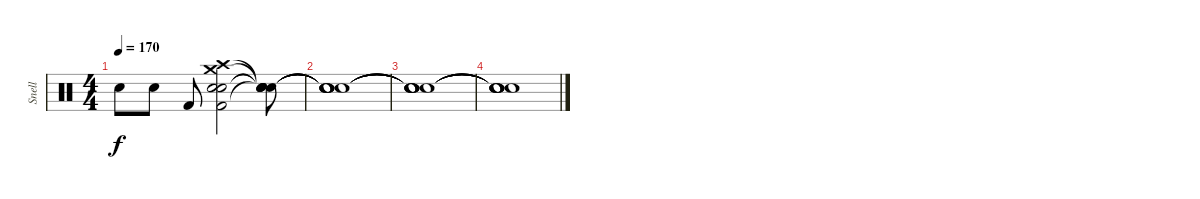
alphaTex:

\track ("Snell" "Snell") {instrument percussion}
\staff {score}
\articulation defaults
\ts (4 4)
\tempo 170
\clef neutral
\ks c "Electric Snare (hit)".8{dy f} "Electric Snare (hit)".8 "Kick (hit) 2".8
("Crash medium (hit)" "Crash high (hit)" "Snare (hit) 2" "Electric Snare (hit)" "Kick (hit) 2").2 ("Snare (hit)"{t} "Snare (hit)"{t} "Snare (hit)"{t} "Snare (hit)"{t} "Snare (hit)"{t}).8 |
("Snare (hit)"{t} "Snare (hit)"{t} "Snare (hit)"{t} "Snare (hit)"{t} "Snare (hit)"{t}).1 |
("Snare (hit)"{t} "Snare (hit)"{t} "Snare (hit)"{t} "Snare (hit)"{t} "Snare (hit)"{t}).1 |
("Snare (hit)"{t} "Snare (hit)"{t} "Snare (hit)"{t} "Snare (hit)"{t} "Snare (hit)"{t}).1
